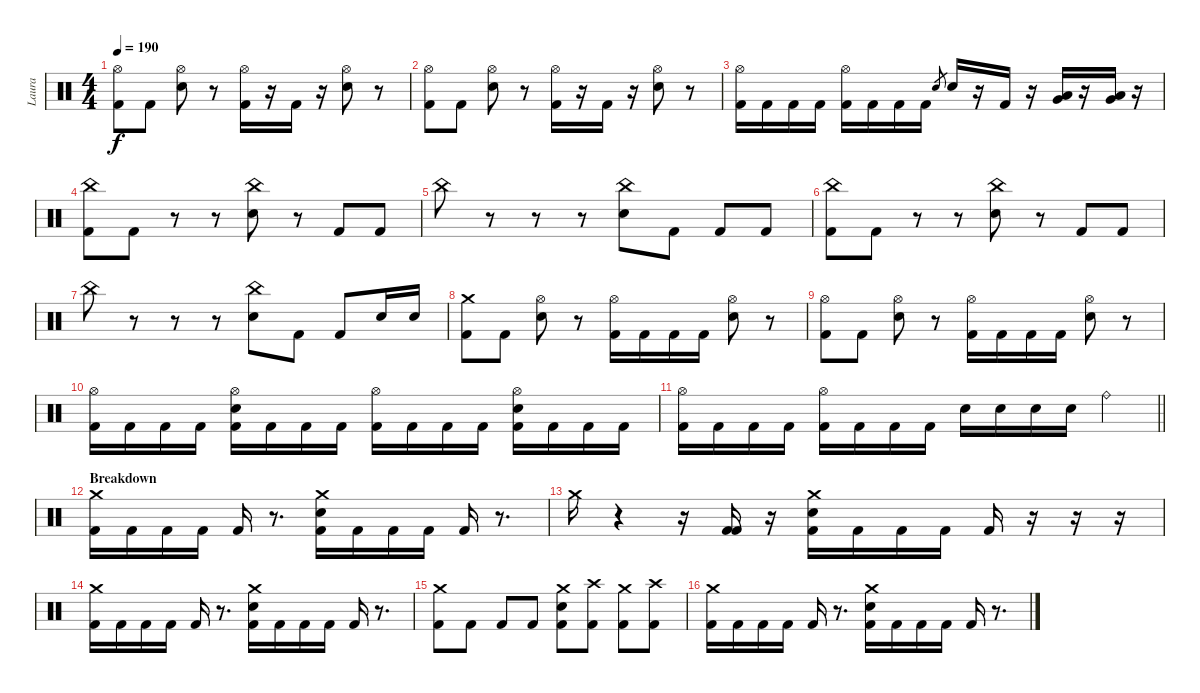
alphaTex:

\track ("Laura" "Laura") {instrument percussion}
\staff {score}
\articulation defaults
\ts (4 4)
\tempo 190
\clef neutral
\ks c
("Hi-Hat (open)" "Kick (hit) 2").8{dy f} "Kick (hit) 2".8 ("Hi-Hat (open)" "Electric Snare (hit)").8 r.8 ("Hi-Hat (open)" "Kick (hit) 2").16 r.16 "Kick (hit) 2".16 r.16 ("Hi-Hat (open)" "Electric Snare (hit)").8 r.8 |
("Hi-Hat (open)" "Kick (hit) 2").8 "Kick (hit) 2".8 ("Hi-Hat (open)" "Electric Snare (hit)").8 r.8 ("Hi-Hat (open)" "Kick (hit) 2").16 r.16 "Kick (hit) 2".16 r.16 ("Hi-Hat (open)" "Electric Snare (hit)").8 r.8 |
("Hi-Hat (open)" "Kick (hit) 2").16 "Kick (hit) 2".16 "Kick (hit) 2".16 "Kick (hit) 2".16 ("Hi-Hat (open)" "Kick (hit) 2").16 "Kick (hit) 2".16 "Kick (hit) 2".16 "Kick (hit) 2".16 "Electric Snare (hit)".8{gr} "Electric Snare (hit)".16 r.16 "Kick (hit) 2".16 r.16 ("Very Low Tom (hit)" "Low Floor Tom (hit)").16 r.16 ("Low Tom (hit)" "Very Low Tom (hit)").16 r.16 |
("China (hit)" "Kick (hit) 2").8 "Kick (hit) 2".8 r.8 r.8 ("China (hit)" "Electric Snare (hit)").8 r.8 "Kick (hit) 2".8 "Kick (hit) 2".8 |
"China (hit)".8 r.8 r.8 r.8 ("China (hit)" "Electric Snare (hit)").8 "Kick (hit) 2".8 "Kick (hit) 2".8 "Kick (hit) 2".8 |
("China (hit)" "Kick (hit) 2").8 "Kick (hit) 2".8 r.8 r.8 ("China (hit)" "Electric Snare (hit)").8 r.8 "Kick (hit) 2".8 "Kick (hit) 2".8 |
"China (hit)".8 r.8 r.8 r.8 ("China (hit)" "Electric Snare (hit)").8 "Kick (hit) 2".8 "Kick (hit) 2".8 "Electric Snare (hit)".16 "Electric Snare (hit)".16 |
("Crash medium (hit)" "Kick (hit) 2").8 "Kick (hit) 2".8 ("Hi-Hat (open)" "Electric Snare (hit)").8 r.8 ("Hi-Hat (open)" "Kick (hit) 2").16 "Kick (hit) 2".16 "Kick (hit) 2".16 "Kick (hit) 2".16 ("Hi-Hat (open)" "Electric Snare (hit)").8 r.8 |
("Hi-Hat (open)" "Kick (hit) 2").8 "Kick (hit) 2".8 ("Hi-Hat (open)" "Electric Snare (hit)").8 r.8 ("Hi-Hat (open)" "Kick (hit) 2").16 "Kick (hit) 2".16 "Kick (hit) 2".16 "Kick (hit) 2".16 ("Hi-Hat (open)" "Electric Snare (hit)").8 r.8 |
("Hi-Hat (open)" "Kick (hit) 2").16 "Kick (hit) 2".16 "Kick (hit) 2".16 "Kick (hit) 2".16 ("Hi-Hat (open)" "Electric Snare (hit)" "Kick (hit) 2").16 "Kick (hit) 2".16 "Kick (hit) 2".16 "Kick (hit) 2".16 ("Hi-Hat (open)" "Kick (hit) 2").16 "Kick (hit) 2".16 "Kick (hit) 2".16 "Kick (hit) 2".16 ("Hi-Hat (open)" "Electric Snare (hit)" "Kick (hit) 2").16 "Kick (hit) 2".16 "Kick (hit) 2".16 "Kick (hit) 2".16 |
\barLineRight lightlight
("Hi-Hat (open)" "Kick (hit) 2").16 "Kick (hit) 2".16 "Kick (hit) 2".16 "Kick (hit) 2".16 ("Hi-Hat (open)" "Kick (hit) 2").16 "Kick (hit) 2".16 "Kick (hit) 2".16 "Kick (hit) 2".16 "Electric Snare (hit)".16 "Electric Snare (hit)".16 "Electric Snare (hit)".16 "Electric Snare (hit)".16 "Ride (bell)".4 |
\section ("" "Breakdown")
("Crash medium (hit)" "Kick (hit) 2").16 "Kick (hit) 2".16 "Kick (hit) 2".16 "Kick (hit) 2".16 "Kick (hit) 2".16 r.8{d} ("Crash medium (hit)" "Electric Snare (hit)" "Kick (hit) 2").16 "Kick (hit) 2".16 "Kick (hit) 2".16 "Kick (hit) 2".16 "Kick (hit) 2".16 r.8{d} |
"Crash medium (hit)".16 r.4 r.16 ("Kick (hit) 2" "Kick (hit) 2").16 r.16 ("Crash medium (hit)" "Electric Snare (hit)" "Kick (hit) 2").16 "Kick (hit) 2".16 "Kick (hit) 2".16 "Kick (hit) 2".16 "Kick (hit) 2".16 r.16 r.16 r.16 |
("Crash medium (hit)" "Kick (hit) 2").16 "Kick (hit) 2".16 "Kick (hit) 2".16 "Kick (hit) 2".16 "Kick (hit) 2".16 r.8{d} ("Crash medium (hit)" "Electric Snare (hit)" "Kick (hit) 2").16 "Kick (hit) 2".16 "Kick (hit) 2".16 "Kick (hit) 2".16 "Kick (hit) 2".16 r.8{d} |
("Crash medium (hit)" "Kick (hit) 2").8 "Kick (hit) 2".8 "Kick (hit) 2".8 "Kick (hit) 2".8 ("Crash medium (hit)" "Electric Snare (hit)" "Kick (hit) 2").8 ("Crash high (hit)" "Kick (hit) 2").8 ("Crash medium (hit)" "Kick (hit) 2").8 ("Crash high (hit)" "Kick (hit) 2").8 |
("Crash medium (hit)" "Kick (hit) 2").16 "Kick (hit) 2".16 "Kick (hit) 2".16 "Kick (hit) 2".16 "Kick (hit) 2".16 r.8{d} ("Crash medium (hit)" "Electric Snare (hit)" "Kick (hit) 2").16 "Kick (hit) 2".16 "Kick (hit) 2".16 "Kick (hit) 2".16 "Kick (hit) 2".16 r.8{d}
